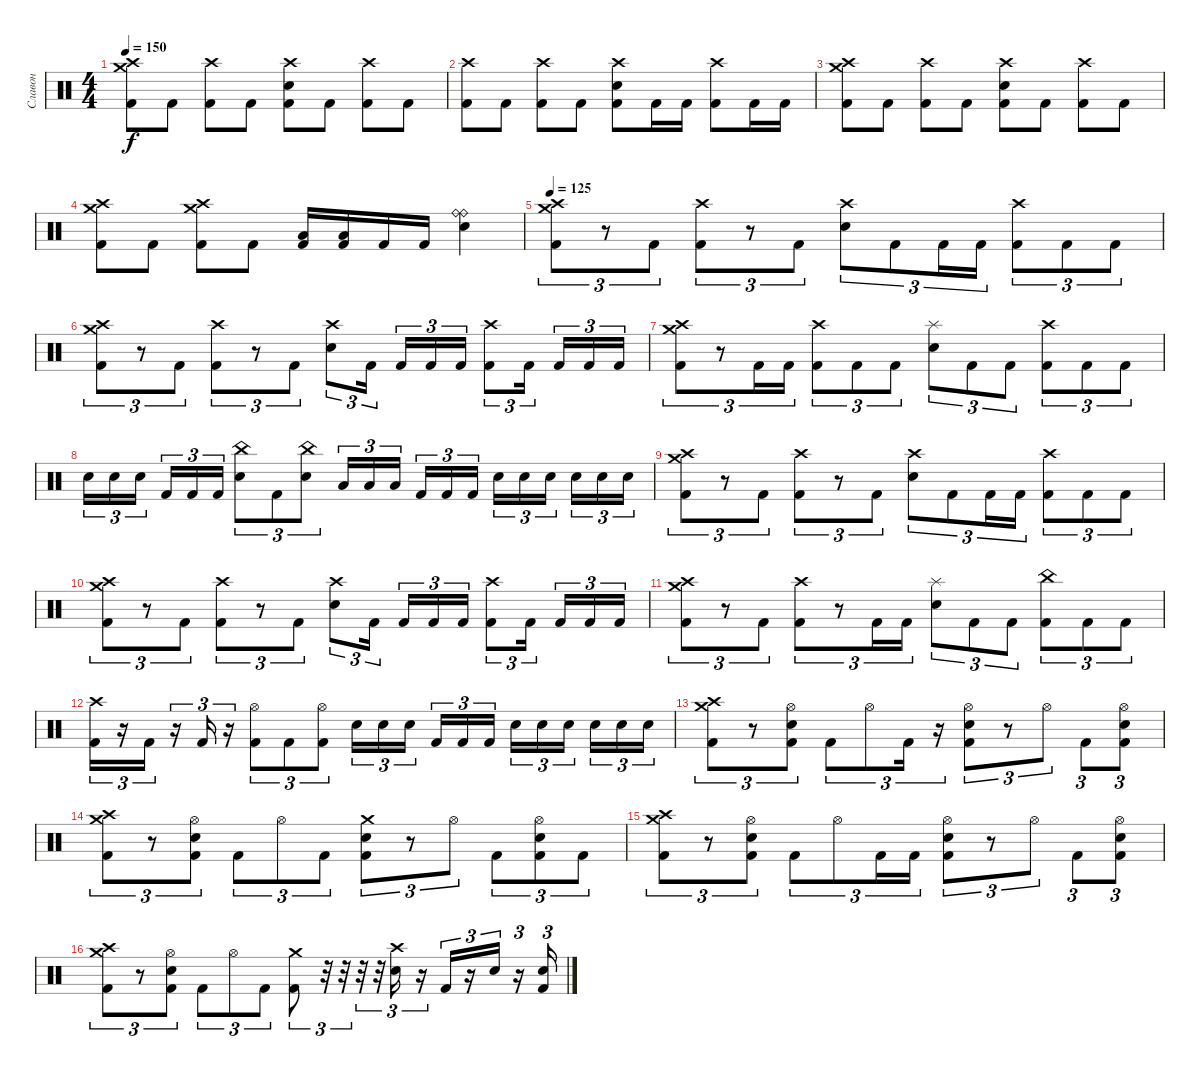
\track ("Славон" "Славон") {instrument percussion}
\staff {score}
\articulation defaults
\ts (4 4)
\tempo 150
\clef neutral
\ks c
("Crash medium (hit)" "Crash high (hit)" "Kick (hit) 2").8{dy f} "Kick (hit) 2".8 ("Crash high (hit)" "Kick (hit) 2").8 "Kick (hit) 2".8 ("Crash high (hit)" "Electric Snare (hit)" "Kick (hit) 2").8 "Kick (hit) 2".8 ("Crash high (hit)" "Kick (hit) 2").8 "Kick (hit) 2".8 |
("Crash high (hit)" "Kick (hit) 2").8 "Kick (hit) 2".8 ("Crash high (hit)" "Kick (hit) 2").8 "Kick (hit) 2".8 ("Crash high (hit)" "Electric Snare (hit)" "Kick (hit) 2").8 "Kick (hit) 2".16 "Kick (hit) 2".16 ("Crash high (hit)" "Kick (hit) 2").8 "Kick (hit) 2".16 "Kick (hit) 2".16 |
("Crash medium (hit)" "Crash high (hit)" "Kick (hit) 2").8 "Kick (hit) 2".8 ("Crash high (hit)" "Kick (hit) 2").8 "Kick (hit) 2".8 ("Crash high (hit)" "Electric Snare (hit)" "Kick (hit) 2").8 "Kick (hit) 2".8 ("Crash high (hit)" "Kick (hit) 2").8 "Kick (hit) 2".8 |
("Crash medium (hit)" "Crash high (hit)" "Kick (hit) 2").8 "Kick (hit) 2".8 ("Crash medium (hit)" "Crash high (hit)" "Kick (hit) 2").8 "Kick (hit) 2".8 ("Low Tom (hit)" "Kick (hit) 2").16 ("Low Tom (hit)" "Kick (hit) 2").16 "Kick (hit) 2".16 "Kick (hit) 2".16 ("Ride (bell)" "Ride (bell)" "Electric Snare (hit)").4 |
\tempo 125
("Crash medium (hit)" "Crash high (hit)" "Kick (hit) 2").8{tu (3 2)} r.8{tu (3 2)} "Kick (hit) 2".8{tu (3 2)} ("Crash high (hit)" "Kick (hit) 2").8{tu (3 2)} r.8{tu (3 2)} "Kick (hit) 2".8{tu (3 2)} ("Crash high (hit)" "Electric Snare (hit)").8{tu (3 2)} "Kick (hit) 2".8{tu (3 2)} "Kick (hit) 2".16{tu (3 2)} "Kick (hit) 2".16{tu (3 2)} ("Crash high (hit)" "Kick (hit) 2").8{tu (3 2)} "Kick (hit) 2".8{tu (3 2)} "Kick (hit) 2".8{tu (3 2)} |
("Crash medium (hit)" "Crash high (hit)" "Kick (hit) 2").8{tu (3 2)} r.8{tu (3 2)} "Kick (hit) 2".8{tu (3 2)} ("Crash high (hit)" "Kick (hit) 2").8{tu (3 2)} r.8{tu (3 2)} "Kick (hit) 2".8{tu (3 2)} ("Crash high (hit)" "Electric Snare (hit)").8{tu (3 2)} "Kick (hit) 2".16{tu (3 2)} "Kick (hit) 2".16{tu (3 2)} "Kick (hit) 2".16{tu (3 2)} "Kick (hit) 2".16{tu (3 2)} ("Crash high (hit)" "Kick (hit) 2").8{tu (3 2)} "Kick (hit) 2".16{tu (3 2)} "Kick (hit) 2".16{tu (3 2)} "Kick (hit) 2".16{tu (3 2)} "Kick (hit) 2".16{tu (3 2)} |
("Crash medium (hit)" "Crash high (hit)" "Kick (hit) 2").8{tu (3 2)} r.8{tu (3 2)} "Kick (hit) 2".16{tu (3 2)} "Kick (hit) 2".16{tu (3 2)} ("Crash high (hit)" "Kick (hit) 2").8{tu (3 2)} "Kick (hit) 2".8{tu (3 2)} "Kick (hit) 2".8{tu (3 2)} ("Splash (hit)" "Electric Snare (hit)").8{tu (3 2)} "Kick (hit) 2".8{tu (3 2)} "Kick (hit) 2".8{tu (3 2)} ("Crash high (hit)" "Kick (hit) 2").8{tu (3 2)} "Kick (hit) 2".8{tu (3 2)} "Kick (hit) 2".8{tu (3 2)} |
"Electric Snare (hit)".16{tu (3 2)} "Electric Snare (hit)".16{tu (3 2)} "Electric Snare (hit)".16{tu (3 2)} "Kick (hit) 2".16{tu (3 2)} "Kick (hit) 2".16{tu (3 2)} "Kick (hit) 2".16{tu (3 2)} ("China (hit)" "Electric Snare (hit)").8{tu (3 2)} "Kick (hit) 2".8{tu (3 2)} ("China (hit)" "Electric Snare (hit)").8{tu (3 2)} "Low Tom (hit)".16{tu (3 2)} "Low Tom (hit)".16{tu (3 2)} "Low Tom (hit)".16{tu (3 2)} "Kick (hit) 2".16{tu (3 2)} "Kick (hit) 2".16{tu (3 2)} "Kick (hit) 2".16{tu (3 2)} "Electric Snare (hit)".16{tu (3 2)} "Electric Snare (hit)".16{tu (3 2)} "Electric Snare (hit)".16{tu (3 2)} "Electric Snare (hit)".16{tu (3 2)} "Electric Snare (hit)".16{tu (3 2)} "Electric Snare (hit)".16{tu (3 2)} |
("Crash medium (hit)" "Crash high (hit)" "Kick (hit) 2").8{tu (3 2)} r.8{tu (3 2)} "Kick (hit) 2".8{tu (3 2)} ("Crash high (hit)" "Kick (hit) 2").8{tu (3 2)} r.8{tu (3 2)} "Kick (hit) 2".8{tu (3 2)} ("Crash high (hit)" "Electric Snare (hit)").8{tu (3 2)} "Kick (hit) 2".8{tu (3 2)} "Kick (hit) 2".16{tu (3 2)} "Kick (hit) 2".16{tu (3 2)} ("Crash high (hit)" "Kick (hit) 2").8{tu (3 2)} "Kick (hit) 2".8{tu (3 2)} "Kick (hit) 2".8{tu (3 2)} |
("Crash medium (hit)" "Crash high (hit)" "Kick (hit) 2").8{tu (3 2)} r.8{tu (3 2)} "Kick (hit) 2".8{tu (3 2)} ("Crash high (hit)" "Kick (hit) 2").8{tu (3 2)} r.8{tu (3 2)} "Kick (hit) 2".8{tu (3 2)} ("Crash high (hit)" "Electric Snare (hit)").8{tu (3 2)} "Kick (hit) 2".16{tu (3 2)} "Kick (hit) 2".16{tu (3 2)} "Kick (hit) 2".16{tu (3 2)} "Kick (hit) 2".16{tu (3 2)} ("Crash high (hit)" "Kick (hit) 2").8{tu (3 2)} "Kick (hit) 2".16{tu (3 2)} "Kick (hit) 2".16{tu (3 2)} "Kick (hit) 2".16{tu (3 2)} "Kick (hit) 2".16{tu (3 2)} |
("Crash medium (hit)" "Crash high (hit)" "Kick (hit) 2").8{tu (3 2)} r.8{tu (3 2)} "Kick (hit) 2".8{tu (3 2)} ("Crash high (hit)" "Kick (hit) 2").8{tu (3 2)} r.8{tu (3 2)} "Kick (hit) 2".16{tu (3 2)} "Kick (hit) 2".16{tu (3 2)} ("Splash (hit)" "Electric Snare (hit)").8{tu (3 2)} "Kick (hit) 2".8{tu (3 2)} "Kick (hit) 2".8{tu (3 2)} ("China (hit)" "Kick (hit) 2").8{tu (3 2)} "Kick (hit) 2".8{tu (3 2)} "Kick (hit) 2".8{tu (3 2)} |
("Crash high (hit)" "Kick (hit) 2").16{tu (3 2)} r.16{tu (3 2)} "Kick (hit) 2".16{tu (3 2)} r.16{tu (3 2)} "Kick (hit) 2".16{tu (3 2)} r.16{tu (3 2)} ("Hi-Hat (open)" "Kick (hit) 2").8{tu (3 2)} "Kick (hit) 2".8{tu (3 2)} ("Hi-Hat (open)" "Kick (hit) 2").8{tu (3 2)} "Electric Snare (hit)".16{tu (3 2)} "Electric Snare (hit)".16{tu (3 2)} "Electric Snare (hit)".16{tu (3 2)} "Kick (hit) 2".16{tu (3 2)} "Kick (hit) 2".16{tu (3 2)} "Kick (hit) 2".16{tu (3 2)} "Electric Snare (hit)".16{tu (3 2)} "Electric Snare (hit)".16{tu (3 2)} "Electric Snare (hit)".16{tu (3 2)} "Electric Snare (hit)".16{tu (3 2)} "Electric Snare (hit)".16{tu (3 2)} "Electric Snare (hit)".16{tu (3 2)} |
("Crash medium (hit)" "Crash high (hit)" "Kick (hit) 2").8{tu (3 2)} r.8{tu (3 2)} ("Hi-Hat (open)" "Electric Snare (hit)" "Kick (hit) 2").8{tu (3 2)} "Kick (hit) 2".8{tu (3 2)} "Hi-Hat (open)".8{tu (3 2)} "Kick (hit) 2".16{tu (3 2)} r.16{tu (3 2)} ("Hi-Hat (open)" "Electric Snare (hit)" "Kick (hit) 2").8{tu (3 2)} r.8{tu (3 2)} "Hi-Hat (open)".8{tu (3 2)} "Kick (hit) 2".8{tu (3 2)} ("Hi-Hat (open)" "Electric Snare (hit)" "Kick (hit) 2").8{tu (3 2)} |
("Crash medium (hit)" "Crash high (hit)" "Kick (hit) 2").8{tu (3 2)} r.8{tu (3 2)} ("Hi-Hat (open)" "Electric Snare (hit)" "Kick (hit) 2").8{tu (3 2)} "Kick (hit) 2".8{tu (3 2)} "Hi-Hat (open)".8{tu (3 2)} "Kick (hit) 2".8{tu (3 2)} ("Crash medium (hit)" "Electric Snare (hit)" "Kick (hit) 2").8{tu (3 2)} r.8{tu (3 2)} "Hi-Hat (open)".8{tu (3 2)} "Kick (hit) 2".8{tu (3 2)} ("Hi-Hat (open)" "Electric Snare (hit)" "Kick (hit) 2").8{tu (3 2)} "Kick (hit) 2".8{tu (3 2)} |
("Crash medium (hit)" "Crash high (hit)" "Kick (hit) 2").8{tu (3 2)} r.8{tu (3 2)} ("Hi-Hat (open)" "Electric Snare (hit)" "Kick (hit) 2").8{tu (3 2)} "Kick (hit) 2".8{tu (3 2)} "Hi-Hat (open)".8{tu (3 2)} "Kick (hit) 2".16{tu (3 2)} "Kick (hit) 2".16{tu (3 2)} ("Hi-Hat (open)" "Electric Snare (hit)" "Kick (hit) 2").8{tu (3 2)} r.8{tu (3 2)} "Hi-Hat (open)".8{tu (3 2)} "Kick (hit) 2".8{tu (3 2)} ("Hi-Hat (open)" "Electric Snare (hit)" "Kick (hit) 2").8{tu (3 2)} |
("Crash medium (hit)" "Crash high (hit)" "Kick (hit) 2").8{tu (3 2)} r.8{tu (3 2)} ("Hi-Hat (open)" "Electric Snare (hit)" "Kick (hit) 2").8{tu (3 2)} "Kick (hit) 2".8{tu (3 2)} "Hi-Hat (open)".8{tu (3 2)} "Kick (hit) 2".8{tu (3 2)} ("Crash medium (hit)" "Kick (hit) 2").8{tu (3 2)} r.32{tu (3 2)} r.32{tu (3 2)} r.32{tu (3 2)} r.32{tu (3 2)} ("Crash high (hit)" "Electric Snare (hit)").16{tu (3 2)} r.16{tu (3 2)} "Kick (hit) 2".16{tu (3 2)} r.16{tu (3 2)} "Electric Snare (hit)".16{tu (3 2)} r.16{tu (3 2)} ("Electric Snare (hit)" "Kick (hit) 2").16{tu (3 2)}
